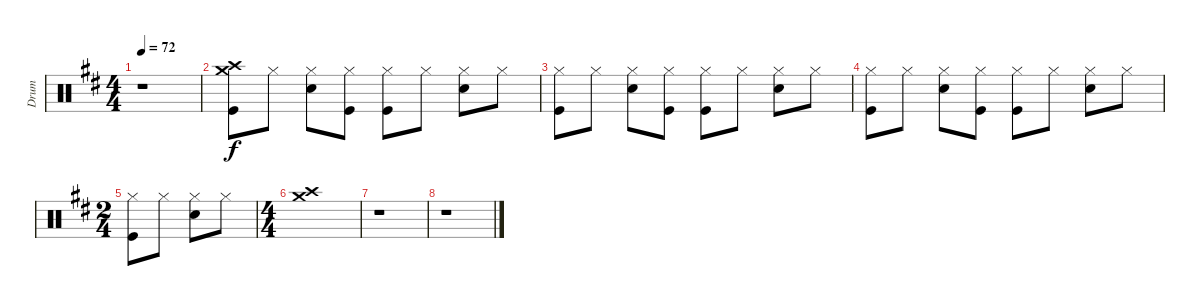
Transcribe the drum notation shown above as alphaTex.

\track ("Drum" "Drum") {instrument percussion}
\staff {score}
\articulation defaults
\ts (4 4)
\tempo 72
\clef neutral
\ks d
r.1{dy f} |
("Crash high (hit)" "Crash medium (hit)" "Kick (hit)").8 "Hi-Hat (closed)".8 ("Hi-Hat (closed)" "Snare (hit) 2").8 ("Hi-Hat (closed)" "Kick (hit)").8 ("Hi-Hat (closed)" "Kick (hit)").8 "Hi-Hat (closed)".8 ("Hi-Hat (closed)" "Snare (hit) 2").8 "Hi-Hat (closed)".8 |
("Hi-Hat (closed)" "Kick (hit)").8 "Hi-Hat (closed)".8 ("Hi-Hat (closed)" "Snare (hit) 2").8 ("Hi-Hat (closed)" "Kick (hit)").8 ("Hi-Hat (closed)" "Kick (hit)").8 "Hi-Hat (closed)".8 ("Hi-Hat (closed)" "Snare (hit) 2").8 "Hi-Hat (closed)".8 |
("Hi-Hat (closed)" "Kick (hit)").8 "Hi-Hat (closed)".8 ("Hi-Hat (closed)" "Snare (hit) 2").8 ("Hi-Hat (closed)" "Kick (hit)").8 ("Hi-Hat (closed)" "Kick (hit)").8 "Hi-Hat (closed)".8 ("Hi-Hat (closed)" "Snare (hit) 2").8 "Hi-Hat (closed)".8 |
\ts (2 4)
("Hi-Hat (closed)" "Kick (hit)").8 "Hi-Hat (closed)".8 ("Hi-Hat (closed)" "Snare (hit) 2").8 "Hi-Hat (closed)".8 |
\ts (4 4)
("Crash high (hit)" "Crash medium (hit)").1 |
r.1 |
r.1
